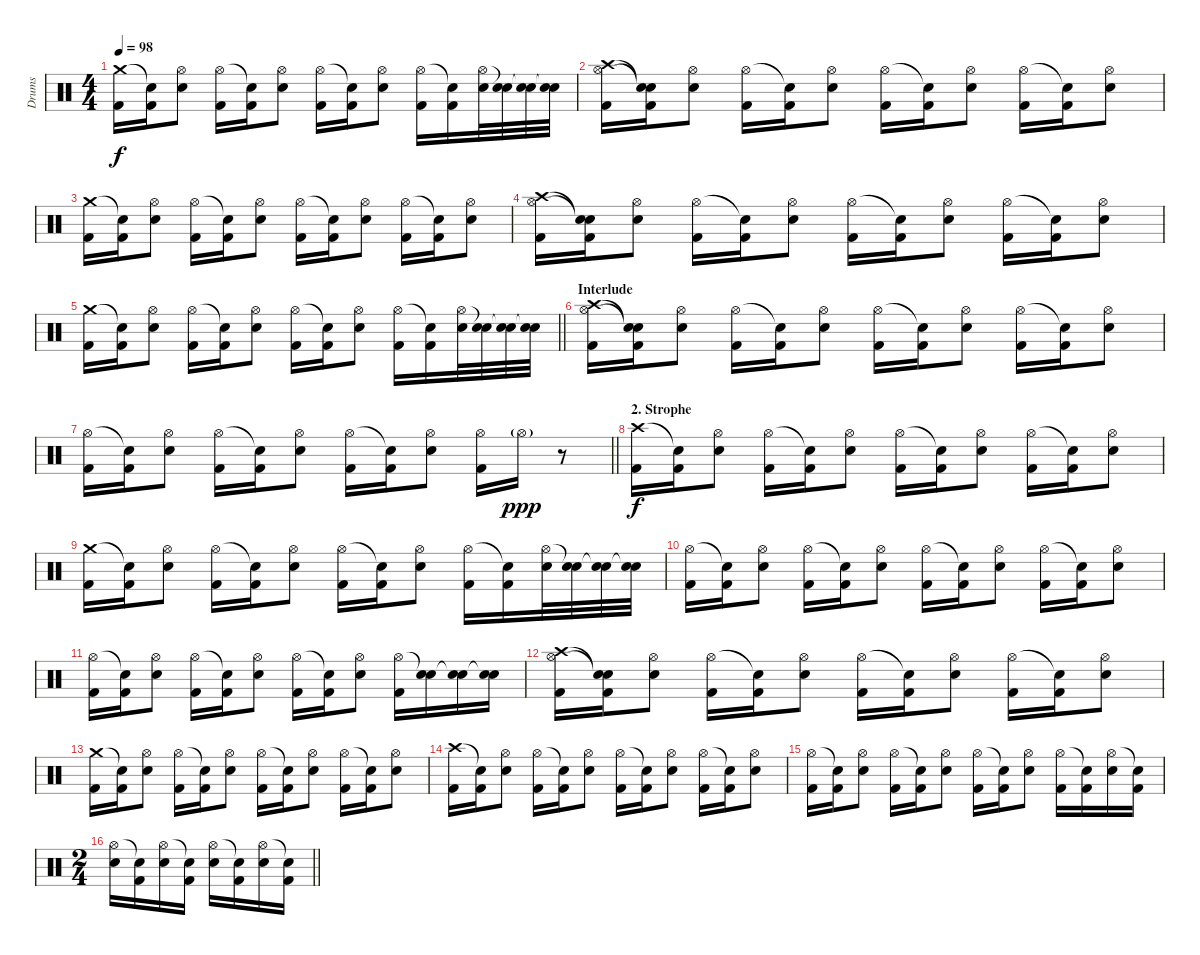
\track ("Drums" "Drums") {instrument percussion}
\staff {score}
\articulation defaults
\ts (4 4)
\tempo 98
\clef neutral
\ks c
("Crash medium (hit)" "Kick (hit) 2").16{dy f} ("Snare (hit)"{t} "Kick (hit) 2").16 ("Hi-Hat (open)" "Snare (hit) 2").8 ("Hi-Hat (open)" "Kick (hit) 2").16 ("Snare (hit)"{t} "Kick (hit) 2").16 ("Hi-Hat (open)" "Snare (hit) 2").8 ("Hi-Hat (open)" "Kick (hit) 2").16 ("Snare (hit)"{t} "Kick (hit) 2").16 ("Hi-Hat (open)" "Snare (hit) 2").8 ("Hi-Hat (open)" "Kick (hit) 2").16 ("Snare (hit)"{t} "Kick (hit) 2").16 ("Hi-Hat (open)" "Snare (hit) 2").32 ("Snare (hit)"{t} "Snare (hit) 2").32 ("Snare (hit)"{t} "Snare (hit) 2").32 ("Snare (hit)"{t} "Snare (hit) 2").32 |
("Crash high (hit)" "Hi-Hat (open)" "Kick (hit) 2").16 ("Snare (hit)"{t} "Snare (hit)"{t} "Kick (hit) 2").16 ("Hi-Hat (open)" "Snare (hit) 2").8 ("Hi-Hat (open)" "Kick (hit) 2").16 ("Snare (hit)"{t} "Kick (hit) 2").16 ("Hi-Hat (open)" "Snare (hit) 2").8 ("Hi-Hat (open)" "Kick (hit) 2").16 ("Snare (hit)"{t} "Kick (hit) 2").16 ("Hi-Hat (open)" "Snare (hit) 2").8 ("Hi-Hat (open)" "Kick (hit) 2").16 ("Snare (hit)"{t} "Kick (hit) 2").16 ("Hi-Hat (open)" "Snare (hit) 2").8 |
("Crash medium (hit)" "Kick (hit) 2").16 ("Snare (hit)"{t} "Kick (hit) 2").16 ("Hi-Hat (open)" "Snare (hit) 2").8 ("Hi-Hat (open)" "Kick (hit) 2").16 ("Snare (hit)"{t} "Kick (hit) 2").16 ("Hi-Hat (open)" "Snare (hit) 2").8 ("Hi-Hat (open)" "Kick (hit) 2").16 ("Snare (hit)"{t} "Kick (hit) 2").16 ("Hi-Hat (open)" "Snare (hit) 2").8 ("Hi-Hat (open)" "Kick (hit) 2").16 ("Snare (hit)"{t} "Kick (hit) 2").16 ("Hi-Hat (open)" "Snare (hit) 2").8 |
("Crash high (hit)" "Hi-Hat (open)" "Kick (hit) 2").16 ("Snare (hit)"{t} "Snare (hit)"{t} "Kick (hit) 2").16 ("Hi-Hat (open)" "Snare (hit) 2").8 ("Hi-Hat (open)" "Kick (hit) 2").16 ("Snare (hit)"{t} "Kick (hit) 2").16 ("Hi-Hat (open)" "Snare (hit) 2").8 ("Hi-Hat (open)" "Kick (hit) 2").16 ("Snare (hit)"{t} "Kick (hit) 2").16 ("Hi-Hat (open)" "Snare (hit) 2").8 ("Hi-Hat (open)" "Kick (hit) 2").16 ("Snare (hit)"{t} "Kick (hit) 2").16 ("Hi-Hat (open)" "Snare (hit) 2").8 |
\barLineRight lightlight
("Crash medium (hit)" "Kick (hit) 2").16 ("Snare (hit)"{t} "Kick (hit) 2").16 ("Hi-Hat (open)" "Snare (hit) 2").8 ("Hi-Hat (open)" "Kick (hit) 2").16 ("Snare (hit)"{t} "Kick (hit) 2").16 ("Hi-Hat (open)" "Snare (hit) 2").8 ("Hi-Hat (open)" "Kick (hit) 2").16 ("Snare (hit)"{t} "Kick (hit) 2").16 ("Hi-Hat (open)" "Snare (hit) 2").8 ("Hi-Hat (open)" "Kick (hit) 2").16 ("Snare (hit)"{t} "Kick (hit) 2").16 ("Hi-Hat (open)" "Snare (hit) 2").32 ("Snare (hit)"{t} "Snare (hit) 2").32 ("Snare (hit)"{t} "Snare (hit) 2").32 ("Snare (hit)"{t} "Snare (hit) 2").32 |
\section ("" "Interlude")
("Crash high (hit)" "Hi-Hat (open)" "Kick (hit) 2").16 ("Snare (hit)"{t} "Snare (hit)"{t} "Kick (hit) 2").16 ("Hi-Hat (open)" "Snare (hit) 2").8 ("Hi-Hat (open)" "Kick (hit) 2").16 ("Snare (hit)"{t} "Kick (hit) 2").16 ("Hi-Hat (open)" "Snare (hit) 2").8 ("Hi-Hat (open)" "Kick (hit) 2").16 ("Snare (hit)"{t} "Kick (hit) 2").16 ("Hi-Hat (open)" "Snare (hit) 2").8 ("Hi-Hat (open)" "Kick (hit) 2").16 ("Snare (hit)"{t} "Kick (hit) 2").16 ("Hi-Hat (open)" "Snare (hit) 2").8 |
\barLineRight lightlight
("Hi-Hat (open)" "Kick (hit) 2").16 ("Snare (hit)"{t} "Kick (hit) 2").16 ("Hi-Hat (open)" "Snare (hit) 2").8 ("Hi-Hat (open)" "Kick (hit) 2").16 ("Snare (hit)"{t} "Kick (hit) 2").16 ("Hi-Hat (open)" "Snare (hit) 2").8 ("Hi-Hat (open)" "Kick (hit) 2").16 ("Snare (hit)"{t} "Kick (hit) 2").16 ("Hi-Hat (open)" "Snare (hit) 2").8 ("Hi-Hat (open)" "Kick (hit) 2").16 "Hi-Hat (open)"{g}.16{dy ppp} r.8 |
\section ("" "2. Strophe")
("Crash high (hit)" "Kick (hit) 2").16{dy f} ("Snare (hit)"{t} "Kick (hit) 2").16 ("Hi-Hat (open)" "Snare (hit) 2").8 ("Hi-Hat (open)" "Kick (hit) 2").16 ("Snare (hit)"{t} "Kick (hit) 2").16 ("Hi-Hat (open)" "Snare (hit) 2").8 ("Hi-Hat (open)" "Kick (hit) 2").16 ("Snare (hit)"{t} "Kick (hit) 2").16 ("Hi-Hat (open)" "Snare (hit) 2").8 ("Hi-Hat (open)" "Kick (hit) 2").16 ("Snare (hit)"{t} "Kick (hit) 2").16 ("Hi-Hat (open)" "Snare (hit) 2").8 |
("Crash medium (hit)" "Kick (hit) 2").16 ("Snare (hit)"{t} "Kick (hit) 2").16 ("Hi-Hat (open)" "Snare (hit) 2").8 ("Hi-Hat (open)" "Kick (hit) 2").16 ("Snare (hit)"{t} "Kick (hit) 2").16 ("Hi-Hat (open)" "Snare (hit) 2").8 ("Hi-Hat (open)" "Kick (hit) 2").16 ("Snare (hit)"{t} "Kick (hit) 2").16 ("Hi-Hat (open)" "Snare (hit) 2").8 ("Hi-Hat (open)" "Kick (hit) 2").16 ("Snare (hit)"{t} "Kick (hit) 2").16 ("Hi-Hat (open)" "Snare (hit) 2").32 ("Snare (hit)"{t} "Snare (hit) 2").32 ("Snare (hit)"{t} "Snare (hit) 2").32 ("Snare (hit)"{t} "Snare (hit) 2").32 |
("Hi-Hat (open)" "Kick (hit) 2").16 ("Snare (hit)"{t} "Kick (hit) 2").16 ("Hi-Hat (open)" "Snare (hit) 2").8 ("Hi-Hat (open)" "Kick (hit) 2").16 ("Snare (hit)"{t} "Kick (hit) 2").16 ("Hi-Hat (open)" "Snare (hit) 2").8 ("Hi-Hat (open)" "Kick (hit) 2").16 ("Snare (hit)"{t} "Kick (hit) 2").16 ("Hi-Hat (open)" "Snare (hit) 2").8 ("Hi-Hat (open)" "Kick (hit) 2").16 ("Snare (hit)"{t} "Kick (hit) 2").16 ("Hi-Hat (open)" "Snare (hit) 2").8 |
("Hi-Hat (open)" "Kick (hit) 2").16 ("Snare (hit)"{t} "Kick (hit) 2").16 ("Hi-Hat (open)" "Snare (hit) 2").8 ("Hi-Hat (open)" "Kick (hit) 2").16 ("Snare (hit)"{t} "Kick (hit) 2").16 ("Hi-Hat (open)" "Snare (hit) 2").8 ("Hi-Hat (open)" "Kick (hit) 2").16 ("Snare (hit)"{t} "Kick (hit) 2").16 ("Hi-Hat (open)" "Snare (hit) 2").8 ("Hi-Hat (open)" "Kick (hit) 2").16 ("Snare (hit)"{t} "Snare (hit) 2").16 ("Snare (hit)"{t} "Snare (hit) 2").16 ("Snare (hit)"{t} "Snare (hit) 2").16 |
("Crash high (hit)" "Hi-Hat (open)" "Kick (hit) 2").16 ("Snare (hit)"{t} "Snare (hit)"{t} "Kick (hit) 2").16 ("Hi-Hat (open)" "Snare (hit) 2").8 ("Hi-Hat (open)" "Kick (hit) 2").16 ("Snare (hit)"{t} "Kick (hit) 2").16 ("Hi-Hat (open)" "Snare (hit) 2").8 ("Hi-Hat (open)" "Kick (hit) 2").16 ("Snare (hit)"{t} "Kick (hit) 2").16 ("Hi-Hat (open)" "Snare (hit) 2").8 ("Hi-Hat (open)" "Kick (hit) 2").16 ("Snare (hit)"{t} "Kick (hit) 2").16 ("Hi-Hat (open)" "Snare (hit) 2").8 |
("Crash medium (hit)" "Kick (hit) 2").16 ("Snare (hit)"{t} "Kick (hit) 2").16 ("Hi-Hat (open)" "Snare (hit) 2").8 ("Hi-Hat (open)" "Kick (hit) 2").16 ("Snare (hit)"{t} "Kick (hit) 2").16 ("Hi-Hat (open)" "Snare (hit) 2").8 ("Hi-Hat (open)" "Kick (hit) 2").16 ("Snare (hit)"{t} "Kick (hit) 2").16 ("Hi-Hat (open)" "Snare (hit) 2").8 ("Hi-Hat (open)" "Kick (hit) 2").16 ("Snare (hit)"{t} "Kick (hit) 2").16 ("Hi-Hat (open)" "Snare (hit) 2").8 |
("Crash high (hit)" "Kick (hit) 2").16 ("Snare (hit)"{t} "Kick (hit) 2").16 ("Hi-Hat (open)" "Snare (hit) 2").8 ("Hi-Hat (open)" "Kick (hit) 2").16 ("Snare (hit)"{t} "Kick (hit) 2").16 ("Hi-Hat (open)" "Snare (hit) 2").8 ("Hi-Hat (open)" "Kick (hit) 2").16 ("Snare (hit)"{t} "Kick (hit) 2").16 ("Hi-Hat (open)" "Snare (hit) 2").8 ("Hi-Hat (open)" "Kick (hit) 2").16 ("Snare (hit)"{t} "Kick (hit) 2").16 ("Hi-Hat (open)" "Snare (hit) 2").8 |
("Hi-Hat (open)" "Kick (hit) 2").16 ("Snare (hit)"{t} "Kick (hit) 2").16 ("Hi-Hat (open)" "Snare (hit) 2").8 ("Hi-Hat (open)" "Kick (hit) 2").16 ("Snare (hit)"{t} "Kick (hit) 2").16 ("Hi-Hat (open)" "Snare (hit) 2").8 ("Hi-Hat (open)" "Kick (hit) 2").16 ("Snare (hit)"{t} "Kick (hit) 2").16 ("Hi-Hat (open)" "Snare (hit) 2").8 ("Hi-Hat (open)" "Kick (hit) 2").16 ("Snare (hit)"{t} "Kick (hit) 2").16 ("Hi-Hat (open)" "Snare (hit) 2").16 ("Snare (hit)"{t} "Kick (hit) 2").16 |
\ts (2 4)
\barLineRight lightlight
("Hi-Hat (open)" "Snare (hit) 2").16 ("Snare (hit)"{t} "Kick (hit) 2").16 ("Hi-Hat (open)" "Snare (hit) 2").16 ("Snare (hit)"{t} "Kick (hit) 2").16 ("Hi-Hat (open)" "Snare (hit) 2").16 ("Snare (hit)"{t} "Kick (hit) 2").16 ("Hi-Hat (open)" "Snare (hit) 2").16 ("Snare (hit)"{t} "Kick (hit) 2").16
